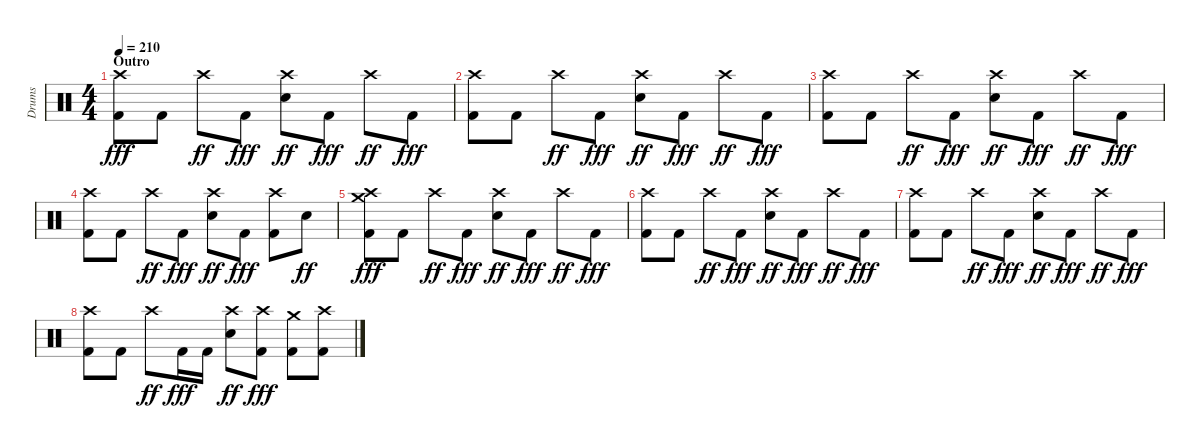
\track ("Drums" "Drums") {instrument percussion}
\staff {score}
\articulation defaults
\ts (4 4)
\section ("" "Outro")
\tempo 210
\clef neutral
\ks c
("Crash high (hit)" "Kick (hit) 2").8{dy fff} "Kick (hit) 2".8 "Crash high (hit)".8{dy ff} "Kick (hit) 2".8{dy fff} ("Crash high (hit)" "Snare (hit) 2").8{dy ff} "Kick (hit) 2".8{dy fff} "Crash high (hit)".8{dy ff} "Kick (hit) 2".8{dy fff} |
("Crash high (hit)" "Kick (hit) 2").8 "Kick (hit) 2".8 "Crash high (hit)".8{dy ff} "Kick (hit) 2".8{dy fff} ("Crash high (hit)" "Snare (hit) 2").8{dy ff} "Kick (hit) 2".8{dy fff} "Crash high (hit)".8{dy ff} "Kick (hit) 2".8{dy fff} |
("Crash high (hit)" "Kick (hit) 2").8 "Kick (hit) 2".8 "Crash high (hit)".8{dy ff} "Kick (hit) 2".8{dy fff} ("Crash high (hit)" "Snare (hit) 2").8{dy ff} "Kick (hit) 2".8{dy fff} "Crash high (hit)".8{dy ff} "Kick (hit) 2".8{dy fff} |
("Crash high (hit)" "Kick (hit) 2").8 "Kick (hit) 2".8 "Crash high (hit)".8{dy ff} "Kick (hit) 2".8{dy fff} ("Crash high (hit)" "Snare (hit) 2").8{dy ff} "Kick (hit) 2".8{dy fff} ("Crash high (hit)" "Kick (hit) 2").8 "Snare (hit) 2".8{dy ff} |
("Crash medium (hit)" "Crash high (hit)" "Kick (hit) 2").8{dy fff} "Kick (hit) 2".8 "Crash high (hit)".8{dy ff} "Kick (hit) 2".8{dy fff} ("Crash high (hit)" "Snare (hit) 2").8{dy ff} "Kick (hit) 2".8{dy fff} "Crash high (hit)".8{dy ff} "Kick (hit) 2".8{dy fff} |
("Crash high (hit)" "Kick (hit) 2").8 "Kick (hit) 2".8 "Crash high (hit)".8{dy ff} "Kick (hit) 2".8{dy fff} ("Crash high (hit)" "Snare (hit) 2").8{dy ff} "Kick (hit) 2".8{dy fff} "Crash high (hit)".8{dy ff} "Kick (hit) 2".8{dy fff} |
("Crash high (hit)" "Kick (hit) 2").8 "Kick (hit) 2".8 "Crash high (hit)".8{dy ff} "Kick (hit) 2".8{dy fff} ("Crash high (hit)" "Snare (hit) 2").8{dy ff} "Kick (hit) 2".8{dy fff} "Crash high (hit)".8{dy ff} "Kick (hit) 2".8{dy fff} |
("Crash high (hit)" "Kick (hit) 2").8 "Kick (hit) 2".8 "Crash high (hit)".8{dy ff} "Kick (hit) 2".16{dy fff} "Kick (hit) 2".16 ("Crash high (hit)" "Snare (hit) 2").8{dy ff} ("Crash high (hit)" "Kick (hit) 2").8{dy fff} ("Crash medium (hit)" "Kick (hit) 2").8 ("Crash high (hit)" "Kick (hit) 2").8
